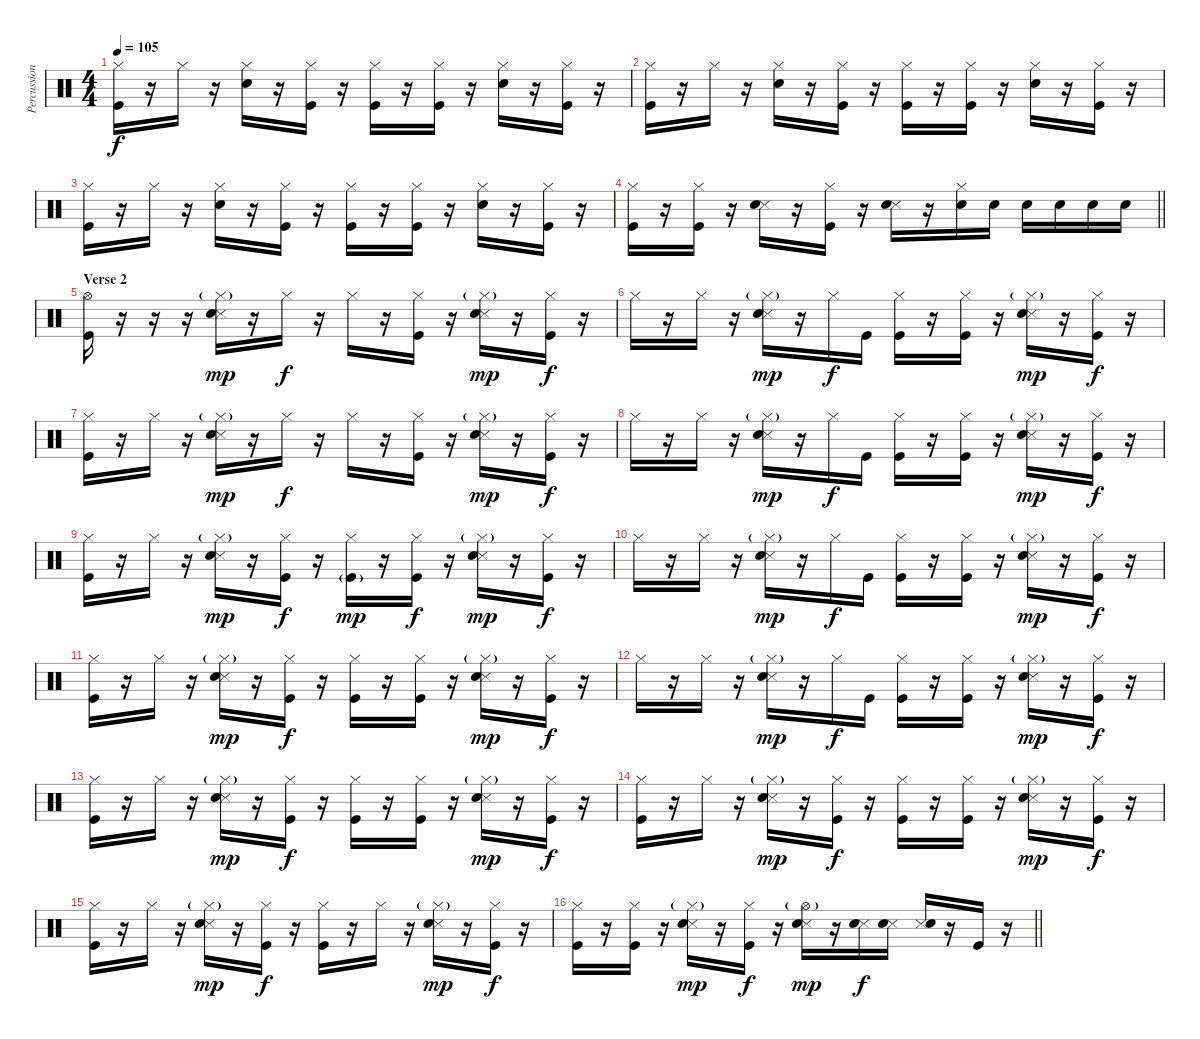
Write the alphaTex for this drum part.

\track ("Percussion" "Percussion") {instrument percussion}
\staff {score}
\articulation defaults
\ts (4 4)
\tempo 105
\clef neutral
\ks c
("Hi-Hat (closed)" "Kick (hit)").16{dy f} r.16 "Hi-Hat (closed)".16 r.16 ("Hi-Hat (closed)" "Snare (hit) 2").16 r.16 ("Hi-Hat (closed)" "Kick (hit)").16 r.16 ("Hi-Hat (closed)" "Kick (hit)").16 r.16 ("Hi-Hat (closed)" "Kick (hit)").16 r.16 ("Hi-Hat (closed)" "Snare (hit) 2").16 r.16 ("Hi-Hat (closed)" "Kick (hit)").16 r.16 |
("Hi-Hat (closed)" "Kick (hit)").16 r.16 "Hi-Hat (closed)".16 r.16 ("Hi-Hat (closed)" "Snare (hit) 2").16 r.16 ("Hi-Hat (closed)" "Kick (hit)").16 r.16 ("Hi-Hat (closed)" "Kick (hit)").16 r.16 ("Hi-Hat (closed)" "Kick (hit)").16 r.16 ("Hi-Hat (closed)" "Snare (hit) 2").16 r.16 ("Hi-Hat (closed)" "Kick (hit)").16 r.16 |
("Hi-Hat (closed)" "Kick (hit)").16 r.16 "Hi-Hat (closed)".16 r.16 ("Hi-Hat (closed)" "Snare (hit) 2").16 r.16 ("Hi-Hat (closed)" "Kick (hit)").16 r.16 ("Hi-Hat (closed)" "Kick (hit)").16 r.16 ("Hi-Hat (closed)" "Kick (hit)").16 r.16 ("Hi-Hat (closed)" "Snare (hit) 2").16 r.16 ("Hi-Hat (closed)" "Kick (hit)").16 r.16 |
\barLineRight lightlight
("Hi-Hat (closed)" "Kick (hit)").16 r.16 ("Hi-Hat (closed)" "Kick (hit)").16 r.16 ("Snare (side stick) 3" "Snare (hit) 2").16 r.16 ("Hi-Hat (closed)" "Kick (hit)").16 r.16 ("Snare (side stick) 3" "Snare (hit) 2").16 r.16 ("Hi-Hat (closed)" "Snare (hit) 2").16 "Snare (hit) 2".16 "Snare (hit) 2".16 "Snare (hit) 2".16 "Snare (hit) 2".16 "Snare (hit) 2".16 |
\section ("" "Verse 2")
("Hi-Hat (open)" "Kick (hit)").16 r.16 r.16 r.16 ("Hi-Hat (closed)"{g} "Snare (side stick) 3" "Snare (hit) 2").16{dy mp} r.16 "Hi-Hat (closed)".16{dy f} r.16 "Hi-Hat (closed)".16 r.16 ("Hi-Hat (closed)" "Kick (hit)").16 r.16 ("Hi-Hat (closed)"{g} "Snare (side stick) 3" "Snare (hit) 2").16{dy mp} r.16 ("Hi-Hat (closed)" "Kick (hit)").16{dy f} r.16 |
"Hi-Hat (closed)".16 r.16 "Hi-Hat (closed)".16 r.16 ("Hi-Hat (closed)"{g} "Snare (side stick) 3" "Snare (hit) 2").16{dy mp} r.16 "Hi-Hat (closed)".16{dy f} "Kick (hit)".16 ("Hi-Hat (closed)" "Kick (hit)").16 r.16 ("Hi-Hat (closed)" "Kick (hit)").16 r.16 ("Hi-Hat (closed)"{g} "Snare (side stick) 3" "Snare (hit) 2").16{dy mp} r.16 ("Hi-Hat (closed)" "Kick (hit)").16{dy f} r.16 |
("Hi-Hat (closed)" "Kick (hit)").16 r.16 "Hi-Hat (closed)".16 r.16 ("Hi-Hat (closed)"{g} "Snare (side stick) 3" "Snare (hit) 2").16{dy mp} r.16 "Hi-Hat (closed)".16{dy f} r.16 "Hi-Hat (closed)".16 r.16 ("Hi-Hat (closed)" "Kick (hit)").16 r.16 ("Hi-Hat (closed)"{g} "Snare (side stick) 3" "Snare (hit) 2").16{dy mp} r.16 ("Hi-Hat (closed)" "Kick (hit)").16{dy f} r.16 |
"Hi-Hat (closed)".16 r.16 "Hi-Hat (closed)".16 r.16 ("Hi-Hat (closed)"{g} "Snare (side stick) 3" "Snare (hit) 2").16{dy mp} r.16 "Hi-Hat (closed)".16{dy f} "Kick (hit)".16 ("Hi-Hat (closed)" "Kick (hit)").16 r.16 ("Hi-Hat (closed)" "Kick (hit)").16 r.16 ("Hi-Hat (closed)"{g} "Snare (side stick) 3" "Snare (hit) 2").16{dy mp} r.16 ("Hi-Hat (closed)" "Kick (hit)").16{dy f} r.16 |
("Hi-Hat (closed)" "Kick (hit)").16 r.16 "Hi-Hat (closed)".16 r.16 ("Hi-Hat (closed)"{g} "Snare (side stick) 3" "Snare (hit) 2").16{dy mp} r.16 ("Hi-Hat (closed)" "Kick (hit)").16{dy f} r.16 ("Hi-Hat (closed)" "Kick (hit)"{g}).16{dy mp} r.16 ("Hi-Hat (closed)" "Kick (hit)").16{dy f} r.16 ("Hi-Hat (closed)"{g} "Snare (side stick) 3" "Snare (hit) 2").16{dy mp} r.16 ("Hi-Hat (closed)" "Kick (hit)").16{dy f} r.16 |
"Hi-Hat (closed)".16 r.16 "Hi-Hat (closed)".16 r.16 ("Hi-Hat (closed)"{g} "Snare (side stick) 3" "Snare (hit) 2").16{dy mp} r.16 "Hi-Hat (closed)".16{dy f} "Kick (hit)".16 ("Hi-Hat (closed)" "Kick (hit)").16 r.16 ("Hi-Hat (closed)" "Kick (hit)").16 r.16 ("Hi-Hat (closed)"{g} "Snare (side stick) 3" "Snare (hit) 2").16{dy mp} r.16 ("Hi-Hat (closed)" "Kick (hit)").16{dy f} r.16 |
("Hi-Hat (closed)" "Kick (hit)").16 r.16 "Hi-Hat (closed)".16 r.16 ("Hi-Hat (closed)"{g} "Snare (side stick) 3" "Snare (hit) 2").16{dy mp} r.16 ("Hi-Hat (closed)" "Kick (hit)").16{dy f} r.16 ("Hi-Hat (closed)" "Kick (hit)").16 r.16 ("Hi-Hat (closed)" "Kick (hit)").16 r.16 ("Hi-Hat (closed)"{g} "Snare (side stick) 3" "Snare (hit) 2").16{dy mp} r.16 ("Hi-Hat (closed)" "Kick (hit)").16{dy f} r.16 |
"Hi-Hat (closed)".16 r.16 "Hi-Hat (closed)".16 r.16 ("Hi-Hat (closed)"{g} "Snare (side stick) 3" "Snare (hit) 2").16{dy mp} r.16 "Hi-Hat (closed)".16{dy f} "Kick (hit)".16 ("Hi-Hat (closed)" "Kick (hit)").16 r.16 ("Hi-Hat (closed)" "Kick (hit)").16 r.16 ("Hi-Hat (closed)"{g} "Snare (side stick) 3" "Snare (hit) 2").16{dy mp} r.16 ("Hi-Hat (closed)" "Kick (hit)").16{dy f} r.16 |
("Hi-Hat (closed)" "Kick (hit)").16 r.16 "Hi-Hat (closed)".16 r.16 ("Hi-Hat (closed)"{g} "Snare (side stick) 3" "Snare (hit) 2").16{dy mp} r.16 ("Hi-Hat (closed)" "Kick (hit)").16{dy f} r.16 ("Hi-Hat (closed)" "Kick (hit)").16 r.16 ("Hi-Hat (closed)" "Kick (hit)").16 r.16 ("Hi-Hat (closed)"{g} "Snare (side stick) 3" "Snare (hit) 2").16{dy mp} r.16 ("Hi-Hat (closed)" "Kick (hit)").16{dy f} r.16 |
("Hi-Hat (closed)" "Kick (hit)").16 r.16 "Hi-Hat (closed)".16 r.16 ("Hi-Hat (closed)"{g} "Snare (side stick) 3" "Snare (hit) 2").16{dy mp} r.16 ("Hi-Hat (closed)" "Kick (hit)").16{dy f} r.16 ("Hi-Hat (closed)" "Kick (hit)").16 r.16 ("Hi-Hat (closed)" "Kick (hit)").16 r.16 ("Hi-Hat (closed)"{g} "Snare (side stick) 3" "Snare (hit) 2").16{dy mp} r.16 ("Hi-Hat (closed)" "Kick (hit)").16{dy f} r.16 |
("Hi-Hat (closed)" "Kick (hit)").16 r.16 "Hi-Hat (closed)".16 r.16 ("Hi-Hat (closed)"{g} "Snare (side stick) 3" "Snare (hit) 2").16{dy mp} r.16 ("Hi-Hat (closed)" "Kick (hit)").16{dy f} r.16 ("Hi-Hat (closed)" "Kick (hit)").16 r.16 "Hi-Hat (closed)".16 r.16 ("Hi-Hat (closed)"{g} "Snare (side stick) 3" "Snare (hit) 2").16{dy mp} r.16 ("Hi-Hat (closed)" "Kick (hit)").16{dy f} r.16 |
\barLineRight lightlight
("Hi-Hat (closed)" "Kick (hit)").16 r.16 ("Hi-Hat (closed)" "Kick (hit)").16 r.16 ("Hi-Hat (closed)"{g} "Snare (side stick) 3" "Snare (hit) 2").16{dy mp} r.16 ("Hi-Hat (closed)" "Kick (hit)").16{dy f} r.16 ("Hi-Hat (open)"{g} "Snare (side stick) 3" "Snare (hit) 2").16{dy mp} r.16 ("Snare (side stick) 3" "Snare (hit) 2").16{dy f} ("Snare (side stick) 3" "Snare (hit) 2").16 ("Snare (side stick) 3" "Snare (hit) 2").16 r.16 "Kick (hit)".16 r.16
